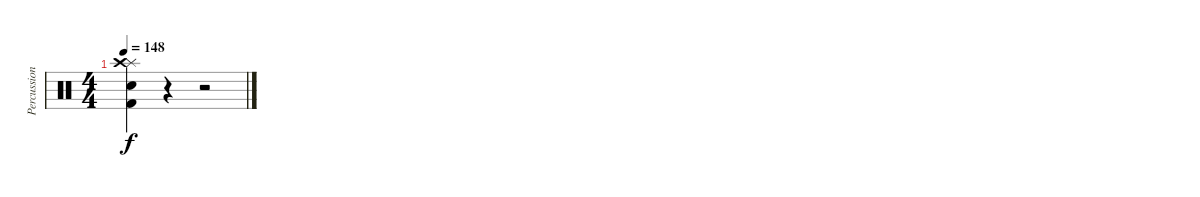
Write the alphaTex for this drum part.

\track ("Percussions" "Percussion") {instrument percussion}
\staff {score}
\articulation defaults
\ts (4 4)
\tempo 148
\clef neutral
\ks c
("Splash (hit)" "Crash high (hit)" "Electric Snare (hit)" "Kick (hit) 2").4{dy f} r.4 r.2
